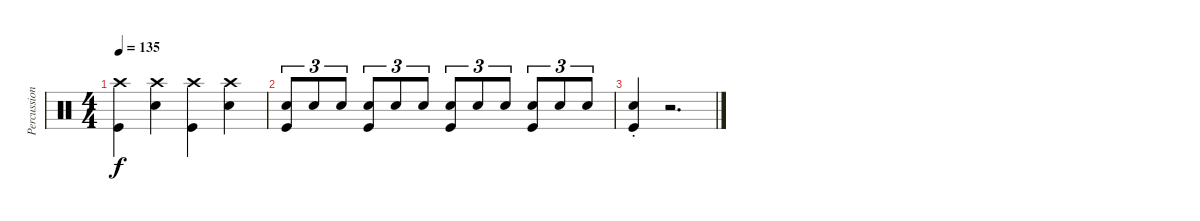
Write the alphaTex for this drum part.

\track ("Percussion" "Percussion") {instrument percussion}
\staff {score}
\articulation defaults
\ts (4 4)
\tempo 135
\clef neutral
\ks c
("Crash high (hit)" "Kick (hit)").4{dy f} ("Crash high (hit)" "Electric Snare (hit)").4 ("Crash high (hit)" "Kick (hit)").4 ("Crash high (hit)" "Electric Snare (hit)").4 |
("Snare (hit) 2" "Kick (hit)").8{tu (3 2)} "Snare (hit) 2".8{tu (3 2)} "Snare (hit) 2".8{tu (3 2)} ("Snare (hit) 2" "Kick (hit)").8{tu (3 2)} "Snare (hit) 2".8{tu (3 2)} "Snare (hit) 2".8{tu (3 2)} ("Snare (hit) 2" "Kick (hit)").8{tu (3 2)} "Snare (hit) 2".8{tu (3 2)} "Snare (hit) 2".8{tu (3 2)} ("Snare (hit) 2" "Kick (hit)").8{tu (3 2)} "Snare (hit) 2".8{tu (3 2)} "Snare (hit) 2".8{tu (3 2)} |
("Snare (hit) 2"{st} "Kick (hit)").4 r.2{d}
